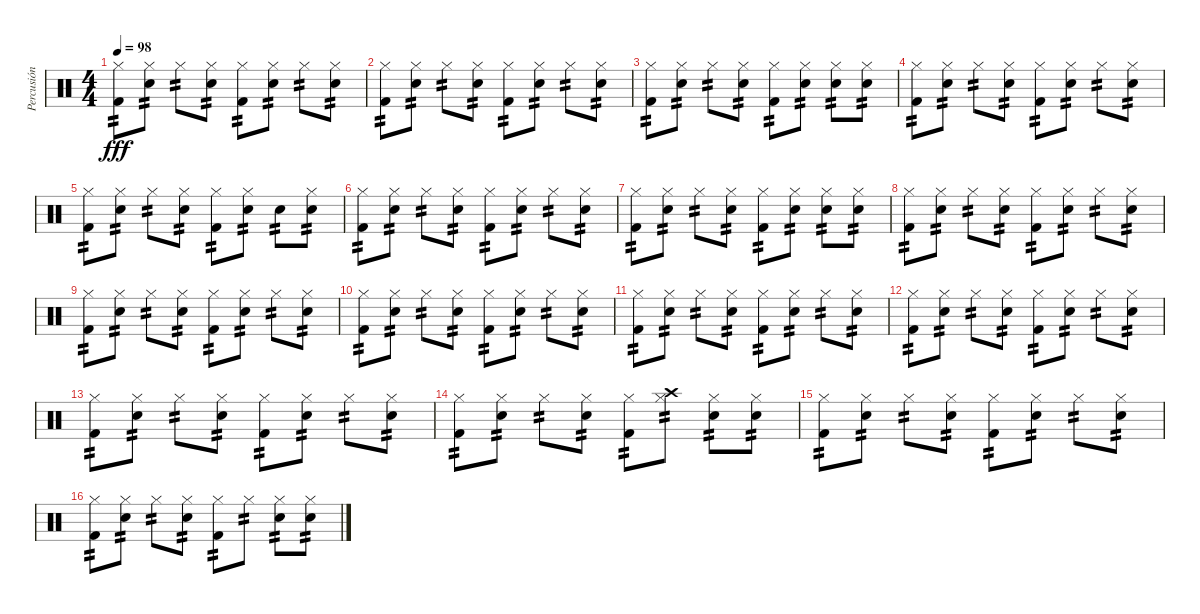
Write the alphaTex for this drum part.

\track ("Percusión" "Percusión") {instrument percussion}
\staff {score}
\articulation defaults
\ts (4 4)
\tempo 98
\clef neutral
\ks c
("Hi-Hat (closed)" "Kick (hit) 2").8{tp 2 dy fff} ("Hi-Hat (closed)" "Snare (hit) 2").8{tp 2} "Hi-Hat (closed)".8{tp 2} ("Hi-Hat (closed)" "Snare (hit) 2").8{tp 2} ("Hi-Hat (closed)" "Kick (hit) 2").8{tp 2} ("Hi-Hat (closed)" "Snare (hit) 2").8{tp 2} "Hi-Hat (closed)".8{tp 2} ("Hi-Hat (closed)" "Snare (hit) 2").8{tp 2} |
("Hi-Hat (closed)" "Kick (hit) 2").8{tp 2} ("Hi-Hat (closed)" "Snare (hit) 2").8{tp 2} "Hi-Hat (closed)".8{tp 2} ("Hi-Hat (closed)" "Snare (hit) 2").8{tp 2} ("Hi-Hat (closed)" "Kick (hit) 2").8{tp 2} ("Hi-Hat (closed)" "Snare (hit) 2").8{tp 2} "Hi-Hat (closed)".8{tp 2} ("Hi-Hat (closed)" "Snare (hit) 2").8{tp 2} |
("Hi-Hat (closed)" "Kick (hit) 2").8{tp 2} ("Hi-Hat (closed)" "Snare (hit) 2").8{tp 2} "Hi-Hat (closed)".8{tp 2} ("Hi-Hat (closed)" "Snare (hit) 2").8{tp 2} ("Hi-Hat (closed)" "Kick (hit) 2").8{tp 2} ("Hi-Hat (closed)" "Snare (hit) 2").8{tp 2} ("Hi-Hat (closed)" "Snare (hit) 2").8{tp 2} ("Hi-Hat (closed)" "Snare (hit) 2").8{tp 2} |
("Hi-Hat (closed)" "Kick (hit) 2").8{tp 2} ("Hi-Hat (closed)" "Snare (hit) 2").8{tp 2} "Hi-Hat (closed)".8{tp 2} ("Hi-Hat (closed)" "Snare (hit) 2").8{tp 2} ("Hi-Hat (closed)" "Kick (hit) 2").8{tp 2} ("Hi-Hat (closed)" "Snare (hit) 2").8{tp 2} "Hi-Hat (closed)".8{tp 2} ("Hi-Hat (closed)" "Snare (hit) 2").8{tp 2} |
("Hi-Hat (closed)" "Kick (hit) 2").8{tp 2} ("Hi-Hat (closed)" "Snare (hit) 2").8{tp 2} "Hi-Hat (closed)".8{tp 2} ("Hi-Hat (closed)" "Snare (hit) 2").8{tp 2} ("Hi-Hat (closed)" "Kick (hit) 2").8{tp 2} ("Hi-Hat (closed)" "Snare (hit) 2").8{tp 2} "Snare (hit) 2".8{tp 2} ("Hi-Hat (closed)" "Snare (hit) 2").8{tp 2} |
("Hi-Hat (closed)" "Kick (hit) 2").8{tp 2} ("Hi-Hat (closed)" "Snare (hit) 2").8{tp 2} "Hi-Hat (closed)".8{tp 2} ("Hi-Hat (closed)" "Snare (hit) 2").8{tp 2} ("Hi-Hat (closed)" "Kick (hit) 2").8{tp 2} ("Hi-Hat (closed)" "Snare (hit) 2").8{tp 2} "Hi-Hat (closed)".8{tp 2} ("Hi-Hat (closed)" "Snare (hit) 2").8{tp 2} |
("Hi-Hat (closed)" "Kick (hit) 2").8{tp 2} ("Hi-Hat (closed)" "Snare (hit) 2").8{tp 2} "Hi-Hat (closed)".8{tp 2} ("Hi-Hat (closed)" "Snare (hit) 2").8{tp 2} ("Hi-Hat (closed)" "Kick (hit) 2").8{tp 2} ("Hi-Hat (closed)" "Snare (hit) 2").8{tp 2} ("Hi-Hat (closed)" "Snare (hit) 2").8{tp 2} ("Hi-Hat (closed)" "Snare (hit) 2").8{tp 2} |
("Hi-Hat (closed)" "Kick (hit) 2").8{tp 2} ("Hi-Hat (closed)" "Snare (hit) 2").8{tp 2} "Hi-Hat (closed)".8{tp 2} ("Hi-Hat (closed)" "Snare (hit) 2").8{tp 2} ("Hi-Hat (closed)" "Kick (hit) 2").8{tp 2} ("Hi-Hat (closed)" "Snare (hit) 2").8{tp 2} "Hi-Hat (closed)".8{tp 2} ("Hi-Hat (closed)" "Snare (hit) 2").8{tp 2} |
("Hi-Hat (closed)" "Kick (hit) 2").8{tp 2} ("Hi-Hat (closed)" "Snare (hit) 2").8{tp 2} "Hi-Hat (closed)".8{tp 2} ("Hi-Hat (closed)" "Snare (hit) 2").8{tp 2} ("Hi-Hat (closed)" "Kick (hit) 2").8{tp 2} ("Hi-Hat (closed)" "Snare (hit) 2").8{tp 2} "Hi-Hat (closed)".8{tp 2} ("Hi-Hat (closed)" "Snare (hit) 2").8{tp 2} |
("Hi-Hat (closed)" "Kick (hit) 2").8{tp 2} ("Hi-Hat (closed)" "Snare (hit) 2").8{tp 2} "Hi-Hat (closed)".8{tp 2} ("Hi-Hat (closed)" "Snare (hit) 2").8{tp 2} ("Hi-Hat (closed)" "Kick (hit) 2").8{tp 2} ("Hi-Hat (closed)" "Snare (hit) 2").8{tp 2} "Hi-Hat (closed)".8{tp 2} ("Hi-Hat (closed)" "Snare (hit) 2").8{tp 2} |
("Hi-Hat (closed)" "Kick (hit) 2").8{tp 2} ("Hi-Hat (closed)" "Snare (hit) 2").8{tp 2} "Hi-Hat (closed)".8{tp 2} ("Hi-Hat (closed)" "Snare (hit) 2").8{tp 2} ("Hi-Hat (closed)" "Kick (hit) 2").8{tp 2} ("Hi-Hat (closed)" "Snare (hit) 2").8{tp 2} "Hi-Hat (closed)".8{tp 2} ("Hi-Hat (closed)" "Snare (hit) 2").8{tp 2} |
("Hi-Hat (closed)" "Kick (hit) 2").8{tp 2} ("Hi-Hat (closed)" "Snare (hit) 2").8{tp 2} "Hi-Hat (closed)".8{tp 2} ("Hi-Hat (closed)" "Snare (hit) 2").8{tp 2} ("Hi-Hat (closed)" "Kick (hit) 2").8{tp 2} ("Hi-Hat (closed)" "Snare (hit) 2").8{tp 2} "Hi-Hat (closed)".8{tp 2} ("Hi-Hat (closed)" "Snare (hit) 2").8{tp 2} |
("Hi-Hat (closed)" "Kick (hit) 2").8{tp 2} ("Hi-Hat (closed)" "Snare (hit) 2").8{tp 2} "Hi-Hat (closed)".8{tp 2} ("Hi-Hat (closed)" "Snare (hit) 2").8{tp 2} ("Hi-Hat (closed)" "Kick (hit) 2").8{tp 2} ("Hi-Hat (closed)" "Snare (hit) 2").8{tp 2} "Hi-Hat (closed)".8{tp 2} ("Hi-Hat (closed)" "Snare (hit) 2").8{tp 2} |
("Hi-Hat (closed)" "Kick (hit) 2").8{tp 2} ("Hi-Hat (closed)" "Snare (hit) 2").8{tp 2} "Hi-Hat (closed)".8{tp 2} ("Hi-Hat (closed)" "Snare (hit) 2").8{tp 2} ("Hi-Hat (closed)" "Kick (hit) 2").8{tp 2} ("Hi-Hat (closed)" "Crash high (hit)").8{tp 2} ("Hi-Hat (closed)" "Snare (hit) 2").8{tp 2} ("Hi-Hat (closed)" "Snare (hit) 2").8{tp 2} |
("Hi-Hat (closed)" "Kick (hit) 2").8{tp 2} ("Hi-Hat (closed)" "Snare (hit) 2").8{tp 2} "Hi-Hat (closed)".8{tp 2} ("Hi-Hat (closed)" "Snare (hit) 2").8{tp 2} ("Hi-Hat (closed)" "Kick (hit) 2").8{tp 2} ("Hi-Hat (closed)" "Snare (hit) 2").8{tp 2} "Hi-Hat (closed)".8{tp 2} ("Hi-Hat (closed)" "Snare (hit) 2").8{tp 2} |
("Hi-Hat (closed)" "Kick (hit) 2").8{tp 2} ("Hi-Hat (closed)" "Snare (hit) 2").8{tp 2} "Hi-Hat (closed)".8{tp 2} ("Hi-Hat (closed)" "Snare (hit) 2").8{tp 2} ("Hi-Hat (closed)" "Kick (hit) 2").8{tp 2} "Hi-Hat (closed)".8{tp 2} ("Hi-Hat (closed)" "Snare (hit) 2").8{tp 2} ("Hi-Hat (closed)" "Snare (hit) 2").8{tp 2}
